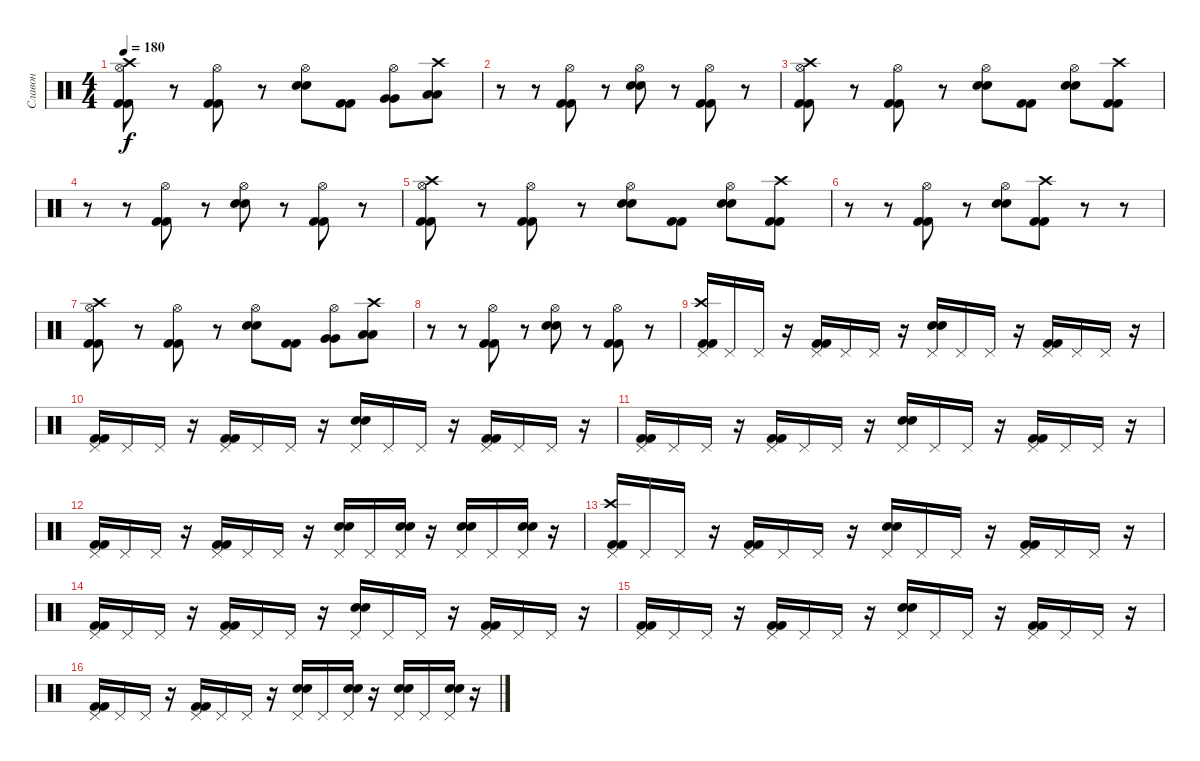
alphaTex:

\track ("Славон" "Славон") {instrument percussion}
\staff {score}
\articulation defaults
\ts (4 4)
\tempo 180
\clef neutral
\ks c
("Hi-Hat (open)" "Kick (hit) 2" "Kick (hit) 2" "Crash high (hit)").8{dy f} r.8 ("Hi-Hat (open)" "Kick (hit) 2" "Kick (hit) 2").8 r.8 ("Hi-Hat (open)" "Electric Snare (hit)" "Electric Snare (hit)").8 ("Kick (hit) 2" "Kick (hit) 2").8 ("Hi-Hat (open)" "Very Low Tom (hit)" "Very Low Tom (hit)").8 ("Low Floor Tom (hit)" "Low Floor Tom (hit)" "Crash high (hit)").8 |
r.8 r.8 ("Hi-Hat (open)" "Kick (hit) 2" "Kick (hit) 2").8 r.8 ("Hi-Hat (open)" "Electric Snare (hit)" "Electric Snare (hit)").8 r.8 ("Hi-Hat (open)" "Kick (hit) 2" "Kick (hit) 2").8 r.8 |
("Hi-Hat (open)" "Kick (hit) 2" "Kick (hit) 2" "Crash high (hit)").8 r.8 ("Hi-Hat (open)" "Kick (hit) 2" "Kick (hit) 2").8 r.8 ("Hi-Hat (open)" "Electric Snare (hit)" "Electric Snare (hit)").8 ("Kick (hit) 2" "Kick (hit) 2").8 ("Hi-Hat (open)" "Electric Snare (hit)" "Electric Snare (hit)").8 ("Kick (hit) 2" "Kick (hit) 2" "Crash high (hit)").8 |
r.8 r.8 ("Hi-Hat (open)" "Kick (hit) 2" "Kick (hit) 2").8 r.8 ("Hi-Hat (open)" "Electric Snare (hit)" "Electric Snare (hit)").8 r.8 ("Hi-Hat (open)" "Kick (hit) 2" "Kick (hit) 2").8 r.8 |
("Hi-Hat (open)" "Kick (hit) 2" "Kick (hit) 2" "Crash high (hit)").8 r.8 ("Hi-Hat (open)" "Kick (hit) 2" "Kick (hit) 2").8 r.8 ("Hi-Hat (open)" "Electric Snare (hit)" "Electric Snare (hit)").8 ("Kick (hit) 2" "Kick (hit) 2").8 ("Hi-Hat (open)" "Electric Snare (hit)" "Electric Snare (hit)").8 ("Kick (hit) 2" "Kick (hit) 2" "Crash high (hit)").8 |
r.8 r.8 ("Hi-Hat (open)" "Kick (hit) 2" "Kick (hit) 2").8 r.8 ("Hi-Hat (open)" "Electric Snare (hit)" "Electric Snare (hit)").8 ("Kick (hit) 2" "Kick (hit) 2" "Crash high (hit)").8 r.8 r.8 |
("Hi-Hat (open)" "Kick (hit) 2" "Kick (hit) 2" "Crash high (hit)").8 r.8 ("Hi-Hat (open)" "Kick (hit) 2" "Kick (hit) 2").8 r.8 ("Hi-Hat (open)" "Electric Snare (hit)" "Electric Snare (hit)").8 ("Kick (hit) 2" "Kick (hit) 2").8 ("Hi-Hat (open)" "Very Low Tom (hit)" "Very Low Tom (hit)").8 ("Low Floor Tom (hit)" "Low Floor Tom (hit)" "Crash high (hit)").8 |
r.8 r.8 ("Hi-Hat (open)" "Kick (hit) 2" "Kick (hit) 2").8 r.8 ("Hi-Hat (open)" "Electric Snare (hit)" "Electric Snare (hit)").8 r.8 ("Hi-Hat (open)" "Kick (hit) 2" "Kick (hit) 2").8 r.8 |
\section ("" "")
("Pedal Hi-Hat (hit)" "Kick (hit) 2" "Kick (hit) 2" "Crash high (hit)").16 "Pedal Hi-Hat (hit)".16 "Pedal Hi-Hat (hit)".16 r.16 ("Pedal Hi-Hat (hit)" "Kick (hit) 2" "Kick (hit) 2").16 "Pedal Hi-Hat (hit)".16 "Pedal Hi-Hat (hit)".16 r.16 ("Pedal Hi-Hat (hit)" "Electric Snare (hit)" "Electric Snare (hit)").16 "Pedal Hi-Hat (hit)".16 "Pedal Hi-Hat (hit)".16 r.16 ("Pedal Hi-Hat (hit)" "Kick (hit) 2" "Kick (hit) 2").16 "Pedal Hi-Hat (hit)".16 "Pedal Hi-Hat (hit)".16 r.16 |
("Pedal Hi-Hat (hit)" "Kick (hit) 2" "Kick (hit) 2").16 "Pedal Hi-Hat (hit)".16 "Pedal Hi-Hat (hit)".16 r.16 ("Pedal Hi-Hat (hit)" "Kick (hit) 2" "Kick (hit) 2").16 "Pedal Hi-Hat (hit)".16 "Pedal Hi-Hat (hit)".16 r.16 ("Pedal Hi-Hat (hit)" "Electric Snare (hit)" "Electric Snare (hit)").16 "Pedal Hi-Hat (hit)".16 "Pedal Hi-Hat (hit)".16 r.16 ("Pedal Hi-Hat (hit)" "Kick (hit) 2" "Kick (hit) 2").16 "Pedal Hi-Hat (hit)".16 "Pedal Hi-Hat (hit)".16 r.16 |
("Pedal Hi-Hat (hit)" "Kick (hit) 2" "Kick (hit) 2").16 "Pedal Hi-Hat (hit)".16 "Pedal Hi-Hat (hit)".16 r.16 ("Pedal Hi-Hat (hit)" "Kick (hit) 2" "Kick (hit) 2").16 "Pedal Hi-Hat (hit)".16 "Pedal Hi-Hat (hit)".16 r.16 ("Pedal Hi-Hat (hit)" "Electric Snare (hit)" "Electric Snare (hit)").16 "Pedal Hi-Hat (hit)".16 "Pedal Hi-Hat (hit)".16 r.16 ("Pedal Hi-Hat (hit)" "Kick (hit) 2" "Kick (hit) 2").16 "Pedal Hi-Hat (hit)".16 "Pedal Hi-Hat (hit)".16 r.16 |
("Pedal Hi-Hat (hit)" "Kick (hit) 2" "Kick (hit) 2").16 "Pedal Hi-Hat (hit)".16 "Pedal Hi-Hat (hit)".16 r.16 ("Pedal Hi-Hat (hit)" "Kick (hit) 2" "Kick (hit) 2").16 "Pedal Hi-Hat (hit)".16 "Pedal Hi-Hat (hit)".16 r.16 ("Pedal Hi-Hat (hit)" "Electric Snare (hit)" "Electric Snare (hit)").16 "Pedal Hi-Hat (hit)".16 ("Pedal Hi-Hat (hit)" "Electric Snare (hit)" "Electric Snare (hit)").16 r.16 ("Pedal Hi-Hat (hit)" "Electric Snare (hit)" "Electric Snare (hit)").16 "Pedal Hi-Hat (hit)".16 ("Pedal Hi-Hat (hit)" "Electric Snare (hit)" "Electric Snare (hit)").16 r.16 |
("Pedal Hi-Hat (hit)" "Kick (hit) 2" "Kick (hit) 2" "Crash high (hit)").16 "Pedal Hi-Hat (hit)".16 "Pedal Hi-Hat (hit)".16 r.16 ("Pedal Hi-Hat (hit)" "Kick (hit) 2" "Kick (hit) 2").16 "Pedal Hi-Hat (hit)".16 "Pedal Hi-Hat (hit)".16 r.16 ("Pedal Hi-Hat (hit)" "Electric Snare (hit)" "Electric Snare (hit)").16 "Pedal Hi-Hat (hit)".16 "Pedal Hi-Hat (hit)".16 r.16 ("Pedal Hi-Hat (hit)" "Kick (hit) 2" "Kick (hit) 2").16 "Pedal Hi-Hat (hit)".16 "Pedal Hi-Hat (hit)".16 r.16 |
("Pedal Hi-Hat (hit)" "Kick (hit) 2" "Kick (hit) 2").16 "Pedal Hi-Hat (hit)".16 "Pedal Hi-Hat (hit)".16 r.16 ("Pedal Hi-Hat (hit)" "Kick (hit) 2" "Kick (hit) 2").16 "Pedal Hi-Hat (hit)".16 "Pedal Hi-Hat (hit)".16 r.16 ("Pedal Hi-Hat (hit)" "Electric Snare (hit)" "Electric Snare (hit)").16 "Pedal Hi-Hat (hit)".16 "Pedal Hi-Hat (hit)".16 r.16 ("Pedal Hi-Hat (hit)" "Kick (hit) 2" "Kick (hit) 2").16 "Pedal Hi-Hat (hit)".16 "Pedal Hi-Hat (hit)".16 r.16 |
("Pedal Hi-Hat (hit)" "Kick (hit) 2" "Kick (hit) 2").16 "Pedal Hi-Hat (hit)".16 "Pedal Hi-Hat (hit)".16 r.16 ("Pedal Hi-Hat (hit)" "Kick (hit) 2" "Kick (hit) 2").16 "Pedal Hi-Hat (hit)".16 "Pedal Hi-Hat (hit)".16 r.16 ("Pedal Hi-Hat (hit)" "Electric Snare (hit)" "Electric Snare (hit)").16 "Pedal Hi-Hat (hit)".16 "Pedal Hi-Hat (hit)".16 r.16 ("Pedal Hi-Hat (hit)" "Kick (hit) 2" "Kick (hit) 2").16 "Pedal Hi-Hat (hit)".16 "Pedal Hi-Hat (hit)".16 r.16 |
("Pedal Hi-Hat (hit)" "Kick (hit) 2" "Kick (hit) 2").16 "Pedal Hi-Hat (hit)".16 "Pedal Hi-Hat (hit)".16 r.16 ("Pedal Hi-Hat (hit)" "Kick (hit) 2" "Kick (hit) 2").16 "Pedal Hi-Hat (hit)".16 "Pedal Hi-Hat (hit)".16 r.16 ("Pedal Hi-Hat (hit)" "Electric Snare (hit)" "Electric Snare (hit)").16 "Pedal Hi-Hat (hit)".16 ("Pedal Hi-Hat (hit)" "Electric Snare (hit)" "Electric Snare (hit)").16 r.16 ("Pedal Hi-Hat (hit)" "Electric Snare (hit)" "Electric Snare (hit)").16 "Pedal Hi-Hat (hit)".16 ("Pedal Hi-Hat (hit)" "Electric Snare (hit)" "Electric Snare (hit)").16 r.16
